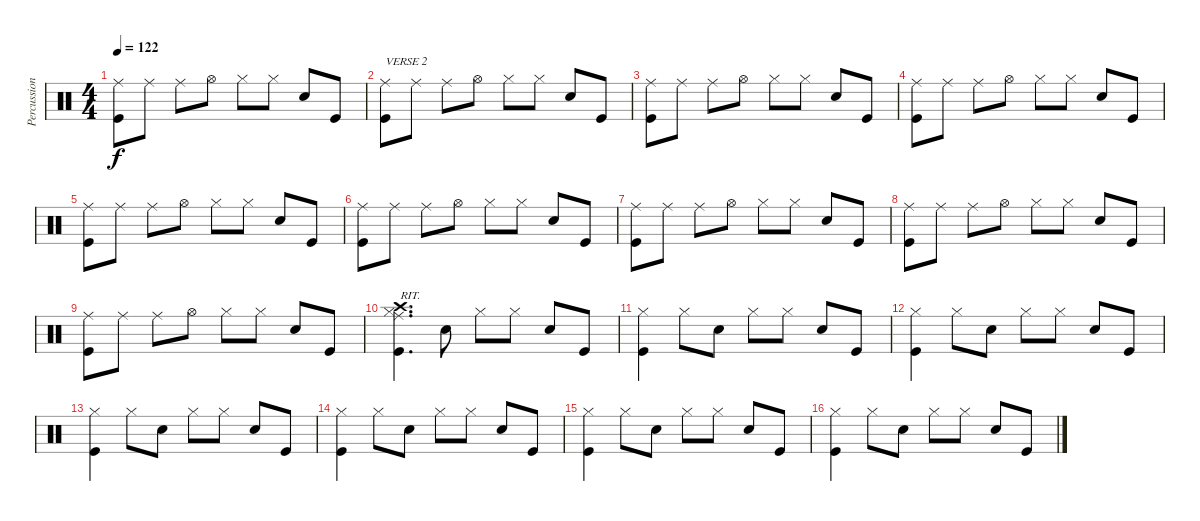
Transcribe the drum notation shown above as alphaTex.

\track ("Percussioni" "Percussion") {instrument percussion}
\staff {score}
\articulation defaults
\ts (4 4)
\tempo 122
\clef neutral
\ks c
("Ride (middle)" "Kick (hit)").8{dy f} "Ride (middle)".8 "Ride (middle)".8 "Hi-Hat (open)".8 "Hi-Hat (closed)".8 "Hi-Hat (closed)".8 "Snare (hit) 2".8 "Kick (hit)".8 |
("Ride (middle)" "Kick (hit)").8{txt "VERSE 2"} "Ride (middle)".8 "Ride (middle)".8 "Hi-Hat (open)".8 "Hi-Hat (closed)".8 "Hi-Hat (closed)".8 "Snare (hit) 2".8 "Kick (hit)".8 |
("Ride (middle)" "Kick (hit)").8 "Ride (middle)".8 "Ride (middle)".8 "Hi-Hat (open)".8 "Hi-Hat (closed)".8 "Hi-Hat (closed)".8 "Snare (hit) 2".8 "Kick (hit)".8 |
("Ride (middle)" "Kick (hit)").8 "Ride (middle)".8 "Ride (middle)".8 "Hi-Hat (open)".8 "Hi-Hat (closed)".8 "Hi-Hat (closed)".8 "Snare (hit) 2".8 "Kick (hit)".8 |
("Ride (middle)" "Kick (hit)").8 "Ride (middle)".8 "Ride (middle)".8 "Hi-Hat (open)".8 "Hi-Hat (closed)".8 "Hi-Hat (closed)".8 "Snare (hit) 2".8 "Kick (hit)".8 |
("Ride (middle)" "Kick (hit)").8 "Ride (middle)".8 "Ride (middle)".8 "Hi-Hat (open)".8 "Hi-Hat (closed)".8 "Hi-Hat (closed)".8 "Snare (hit) 2".8 "Kick (hit)".8 |
("Ride (middle)" "Kick (hit)").8 "Ride (middle)".8 "Ride (middle)".8 "Hi-Hat (open)".8 "Hi-Hat (closed)".8 "Hi-Hat (closed)".8 "Snare (hit) 2".8 "Kick (hit)".8 |
("Ride (middle)" "Kick (hit)").8 "Ride (middle)".8 "Ride (middle)".8 "Hi-Hat (open)".8 "Hi-Hat (closed)".8 "Hi-Hat (closed)".8 "Snare (hit) 2".8 "Kick (hit)".8 |
("Ride (middle)" "Kick (hit)").8 "Ride (middle)".8 "Ride (middle)".8 "Hi-Hat (open)".8 "Hi-Hat (closed)".8 "Hi-Hat (closed)".8 "Snare (hit) 2".8 "Kick (hit)".8 |
("Crash high (hit)" "Ride (middle)" "Hi-Hat (closed)" "Kick (hit)").4{d txt "RIT."} "Snare (hit) 2".8 "Hi-Hat (closed)".8 "Hi-Hat (closed)".8 "Snare (hit) 2".8 "Kick (hit)".8 |
("Hi-Hat (closed)" "Kick (hit)").4 "Hi-Hat (closed)".8 "Snare (hit) 2".8 "Hi-Hat (closed)".8 "Hi-Hat (closed)".8 "Snare (hit) 2".8 "Kick (hit)".8 |
("Hi-Hat (closed)" "Kick (hit)").4 "Hi-Hat (closed)".8 "Snare (hit) 2".8 "Hi-Hat (closed)".8 "Hi-Hat (closed)".8 "Snare (hit) 2".8 "Kick (hit)".8 |
("Hi-Hat (closed)" "Kick (hit)").4 "Hi-Hat (closed)".8 "Snare (hit) 2".8 "Hi-Hat (closed)".8 "Hi-Hat (closed)".8 "Snare (hit) 2".8 "Kick (hit)".8 |
("Hi-Hat (closed)" "Kick (hit)").4 "Hi-Hat (closed)".8 "Snare (hit) 2".8 "Hi-Hat (closed)".8 "Hi-Hat (closed)".8 "Snare (hit) 2".8 "Kick (hit)".8 |
("Hi-Hat (closed)" "Kick (hit)").4 "Hi-Hat (closed)".8 "Snare (hit) 2".8 "Hi-Hat (closed)".8 "Hi-Hat (closed)".8 "Snare (hit) 2".8 "Kick (hit)".8 |
("Hi-Hat (closed)" "Kick (hit)").4 "Hi-Hat (closed)".8 "Snare (hit) 2".8 "Hi-Hat (closed)".8 "Hi-Hat (closed)".8 "Snare (hit) 2".8 "Kick (hit)".8
